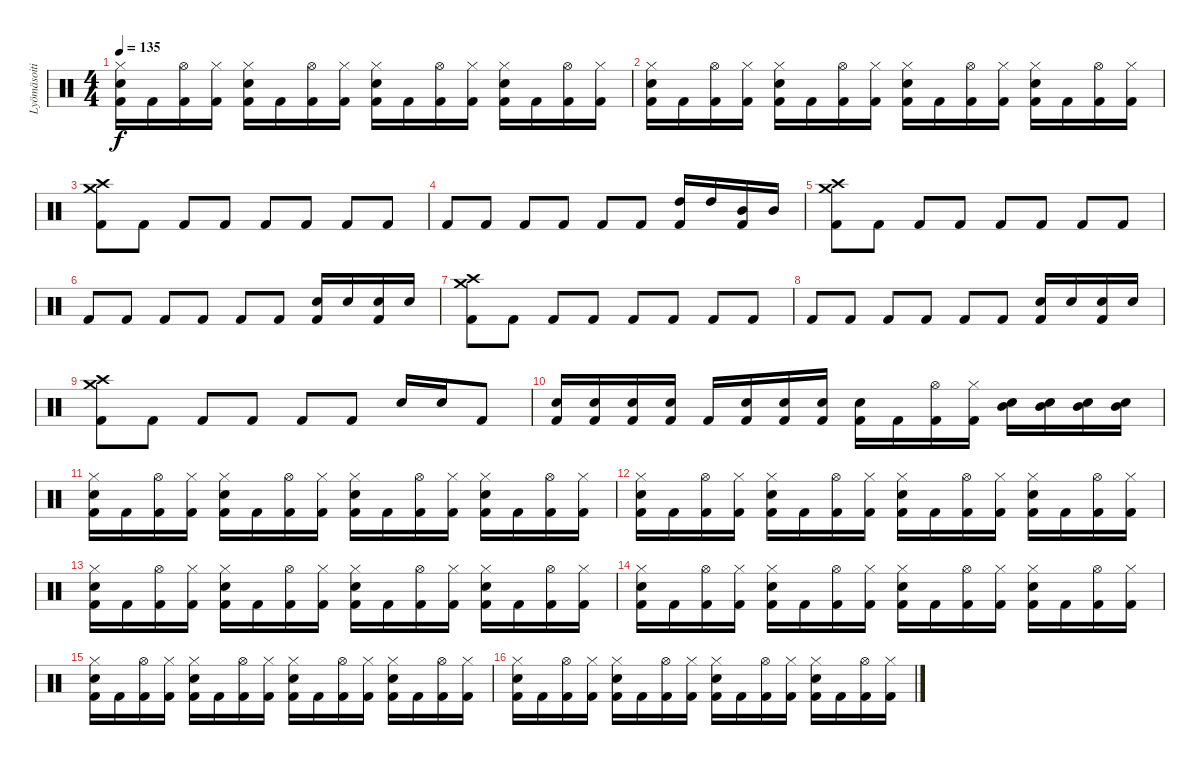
\track ("Lyömäsoitin" "Lyömäsoiti") {instrument percussion}
\staff {score}
\articulation defaults
\ts (4 4)
\tempo 135
\clef neutral
\ks c
("Hi-Hat (closed)" "Electric Snare (hit)" "Kick (hit) 2").16{dy f} "Kick (hit) 2".16 ("Hi-Hat (open)" "Kick (hit) 2").16 ("Hi-Hat (closed)" "Kick (hit) 2").16 ("Hi-Hat (closed)" "Electric Snare (hit)" "Kick (hit) 2").16 "Kick (hit) 2".16 ("Hi-Hat (open)" "Kick (hit) 2").16 ("Hi-Hat (closed)" "Kick (hit) 2").16 ("Hi-Hat (closed)" "Electric Snare (hit)" "Kick (hit) 2").16 "Kick (hit) 2".16 ("Hi-Hat (open)" "Kick (hit) 2").16 ("Hi-Hat (closed)" "Kick (hit) 2").16 ("Hi-Hat (closed)" "Electric Snare (hit)" "Kick (hit) 2").16 "Kick (hit) 2".16 ("Hi-Hat (open)" "Kick (hit) 2").16 ("Hi-Hat (closed)" "Kick (hit) 2").16 |
("Hi-Hat (closed)" "Electric Snare (hit)" "Kick (hit) 2").16 "Kick (hit) 2".16 ("Hi-Hat (open)" "Kick (hit) 2").16 ("Hi-Hat (closed)" "Kick (hit) 2").16 ("Hi-Hat (closed)" "Electric Snare (hit)" "Kick (hit) 2").16 "Kick (hit) 2".16 ("Hi-Hat (open)" "Kick (hit) 2").16 ("Hi-Hat (closed)" "Kick (hit) 2").16 ("Hi-Hat (closed)" "Electric Snare (hit)" "Kick (hit) 2").16 "Kick (hit) 2".16 ("Hi-Hat (open)" "Kick (hit) 2").16 ("Hi-Hat (closed)" "Kick (hit) 2").16 ("Hi-Hat (closed)" "Electric Snare (hit)" "Kick (hit) 2").16 "Kick (hit) 2".16 ("Hi-Hat (open)" "Kick (hit) 2").16 ("Hi-Hat (closed)" "Kick (hit) 2").16 |
("Crash high (hit)" "Crash medium (hit)" "Kick (hit) 2").8 "Kick (hit) 2".8 "Kick (hit) 2".8 "Kick (hit) 2".8 "Kick (hit) 2".8 "Kick (hit) 2".8 "Kick (hit) 2".8 "Kick (hit) 2".8 |
"Kick (hit) 2".8 "Kick (hit) 2".8 "Kick (hit) 2".8 "Kick (hit) 2".8 "Kick (hit) 2".8 "Kick (hit) 2".8 ("High Tom (hit)" "Kick (hit) 2").16 "High Tom (hit)".16 ("Mid Tom (hit)" "Kick (hit) 2").16 "Mid Tom (hit)".16 |
("Crash high (hit)" "Crash medium (hit)" "Kick (hit) 2").8 "Kick (hit) 2".8 "Kick (hit) 2".8 "Kick (hit) 2".8 "Kick (hit) 2".8 "Kick (hit) 2".8 "Kick (hit) 2".8 "Kick (hit) 2".8 |
"Kick (hit) 2".8 "Kick (hit) 2".8 "Kick (hit) 2".8 "Kick (hit) 2".8 "Kick (hit) 2".8 "Kick (hit) 2".8 ("Electric Snare (hit)" "Kick (hit) 2").16 "Electric Snare (hit)".16 ("Electric Snare (hit)" "Kick (hit) 2").16 "Electric Snare (hit)".16 |
("Crash high (hit)" "Crash medium (hit)" "Kick (hit) 2").8 "Kick (hit) 2".8 "Kick (hit) 2".8 "Kick (hit) 2".8 "Kick (hit) 2".8 "Kick (hit) 2".8 "Kick (hit) 2".8 "Kick (hit) 2".8 |
"Kick (hit) 2".8 "Kick (hit) 2".8 "Kick (hit) 2".8 "Kick (hit) 2".8 "Kick (hit) 2".8 "Kick (hit) 2".8 ("Electric Snare (hit)" "Kick (hit) 2").16 "Electric Snare (hit)".16 ("Electric Snare (hit)" "Kick (hit) 2").16 "Electric Snare (hit)".16 |
("Crash high (hit)" "Crash medium (hit)" "Kick (hit) 2").8 "Kick (hit) 2".8 "Kick (hit) 2".8 "Kick (hit) 2".8 "Kick (hit) 2".8 "Kick (hit) 2".8 "Electric Snare (hit)".16 "Electric Snare (hit)".16 "Kick (hit) 2".8 |
("Electric Snare (hit)" "Kick (hit) 2").16 ("Electric Snare (hit)" "Kick (hit) 2").16 ("Electric Snare (hit)" "Kick (hit) 2").16 ("Electric Snare (hit)" "Kick (hit) 2").16 "Kick (hit) 2".16 ("Electric Snare (hit)" "Kick (hit) 2").16 ("Electric Snare (hit)" "Kick (hit) 2").16 ("Electric Snare (hit)" "Kick (hit) 2").16 ("Electric Snare (hit)" "Kick (hit) 2").16 "Kick (hit) 2".16 ("Hi-Hat (open)" "Kick (hit) 2").16 ("Hi-Hat (closed)" "Kick (hit) 2").16 ("Mid Tom (hit)" "Electric Snare (hit)").16 ("Mid Tom (hit)" "Electric Snare (hit)").16 ("Mid Tom (hit)" "Electric Snare (hit)").16 ("Mid Tom (hit)" "Electric Snare (hit)").16 |
("Hi-Hat (closed)" "Electric Snare (hit)" "Kick (hit) 2").16 "Kick (hit) 2".16 ("Hi-Hat (open)" "Kick (hit) 2").16 ("Hi-Hat (closed)" "Kick (hit) 2").16 ("Hi-Hat (closed)" "Electric Snare (hit)" "Kick (hit) 2").16 "Kick (hit) 2".16 ("Hi-Hat (open)" "Kick (hit) 2").16 ("Hi-Hat (closed)" "Kick (hit) 2").16 ("Hi-Hat (closed)" "Electric Snare (hit)" "Kick (hit) 2").16 "Kick (hit) 2".16 ("Hi-Hat (open)" "Kick (hit) 2").16 ("Hi-Hat (closed)" "Kick (hit) 2").16 ("Hi-Hat (closed)" "Electric Snare (hit)" "Kick (hit) 2").16 "Kick (hit) 2".16 ("Hi-Hat (open)" "Kick (hit) 2").16 ("Hi-Hat (closed)" "Kick (hit) 2").16 |
("Hi-Hat (closed)" "Electric Snare (hit)" "Kick (hit) 2").16 "Kick (hit) 2".16 ("Hi-Hat (open)" "Kick (hit) 2").16 ("Hi-Hat (closed)" "Kick (hit) 2").16 ("Hi-Hat (closed)" "Electric Snare (hit)" "Kick (hit) 2").16 "Kick (hit) 2".16 ("Hi-Hat (open)" "Kick (hit) 2").16 ("Hi-Hat (closed)" "Kick (hit) 2").16 ("Hi-Hat (closed)" "Electric Snare (hit)" "Kick (hit) 2").16 "Kick (hit) 2".16 ("Hi-Hat (open)" "Kick (hit) 2").16 ("Hi-Hat (closed)" "Kick (hit) 2").16 ("Hi-Hat (closed)" "Electric Snare (hit)" "Kick (hit) 2").16 "Kick (hit) 2".16 ("Hi-Hat (open)" "Kick (hit) 2").16 ("Hi-Hat (closed)" "Kick (hit) 2").16 |
("Hi-Hat (closed)" "Electric Snare (hit)" "Kick (hit) 2").16 "Kick (hit) 2".16 ("Hi-Hat (open)" "Kick (hit) 2").16 ("Hi-Hat (closed)" "Kick (hit) 2").16 ("Hi-Hat (closed)" "Electric Snare (hit)" "Kick (hit) 2").16 "Kick (hit) 2".16 ("Hi-Hat (open)" "Kick (hit) 2").16 ("Hi-Hat (closed)" "Kick (hit) 2").16 ("Hi-Hat (closed)" "Electric Snare (hit)" "Kick (hit) 2").16 "Kick (hit) 2".16 ("Hi-Hat (open)" "Kick (hit) 2").16 ("Hi-Hat (closed)" "Kick (hit) 2").16 ("Hi-Hat (closed)" "Electric Snare (hit)" "Kick (hit) 2").16 "Kick (hit) 2".16 ("Hi-Hat (open)" "Kick (hit) 2").16 ("Hi-Hat (closed)" "Kick (hit) 2").16 |
("Hi-Hat (closed)" "Electric Snare (hit)" "Kick (hit) 2").16 "Kick (hit) 2".16 ("Hi-Hat (open)" "Kick (hit) 2").16 ("Hi-Hat (closed)" "Kick (hit) 2").16 ("Hi-Hat (closed)" "Electric Snare (hit)" "Kick (hit) 2").16 "Kick (hit) 2".16 ("Hi-Hat (open)" "Kick (hit) 2").16 ("Hi-Hat (closed)" "Kick (hit) 2").16 ("Hi-Hat (closed)" "Electric Snare (hit)" "Kick (hit) 2").16 "Kick (hit) 2".16 ("Hi-Hat (open)" "Kick (hit) 2").16 ("Hi-Hat (closed)" "Kick (hit) 2").16 ("Hi-Hat (closed)" "Electric Snare (hit)" "Kick (hit) 2").16 "Kick (hit) 2".16 ("Hi-Hat (open)" "Kick (hit) 2").16 ("Hi-Hat (closed)" "Kick (hit) 2").16 |
("Hi-Hat (closed)" "Electric Snare (hit)" "Kick (hit) 2").16 "Kick (hit) 2".16 ("Hi-Hat (open)" "Kick (hit) 2").16 ("Hi-Hat (closed)" "Kick (hit) 2").16 ("Hi-Hat (closed)" "Electric Snare (hit)" "Kick (hit) 2").16 "Kick (hit) 2".16 ("Hi-Hat (open)" "Kick (hit) 2").16 ("Hi-Hat (closed)" "Kick (hit) 2").16 ("Hi-Hat (closed)" "Electric Snare (hit)" "Kick (hit) 2").16 "Kick (hit) 2".16 ("Hi-Hat (open)" "Kick (hit) 2").16 ("Hi-Hat (closed)" "Kick (hit) 2").16 ("Hi-Hat (closed)" "Electric Snare (hit)" "Kick (hit) 2").16 "Kick (hit) 2".16 ("Hi-Hat (open)" "Kick (hit) 2").16 ("Hi-Hat (closed)" "Kick (hit) 2").16 |
("Hi-Hat (closed)" "Electric Snare (hit)" "Kick (hit) 2").16 "Kick (hit) 2".16 ("Hi-Hat (open)" "Kick (hit) 2").16 ("Hi-Hat (closed)" "Kick (hit) 2").16 ("Hi-Hat (closed)" "Electric Snare (hit)" "Kick (hit) 2").16 "Kick (hit) 2".16 ("Hi-Hat (open)" "Kick (hit) 2").16 ("Hi-Hat (closed)" "Kick (hit) 2").16 ("Hi-Hat (closed)" "Electric Snare (hit)" "Kick (hit) 2").16 "Kick (hit) 2".16 ("Hi-Hat (open)" "Kick (hit) 2").16 ("Hi-Hat (closed)" "Kick (hit) 2").16 ("Hi-Hat (closed)" "Electric Snare (hit)" "Kick (hit) 2").16 "Kick (hit) 2".16 ("Hi-Hat (open)" "Kick (hit) 2").16 ("Hi-Hat (closed)" "Kick (hit) 2").16
